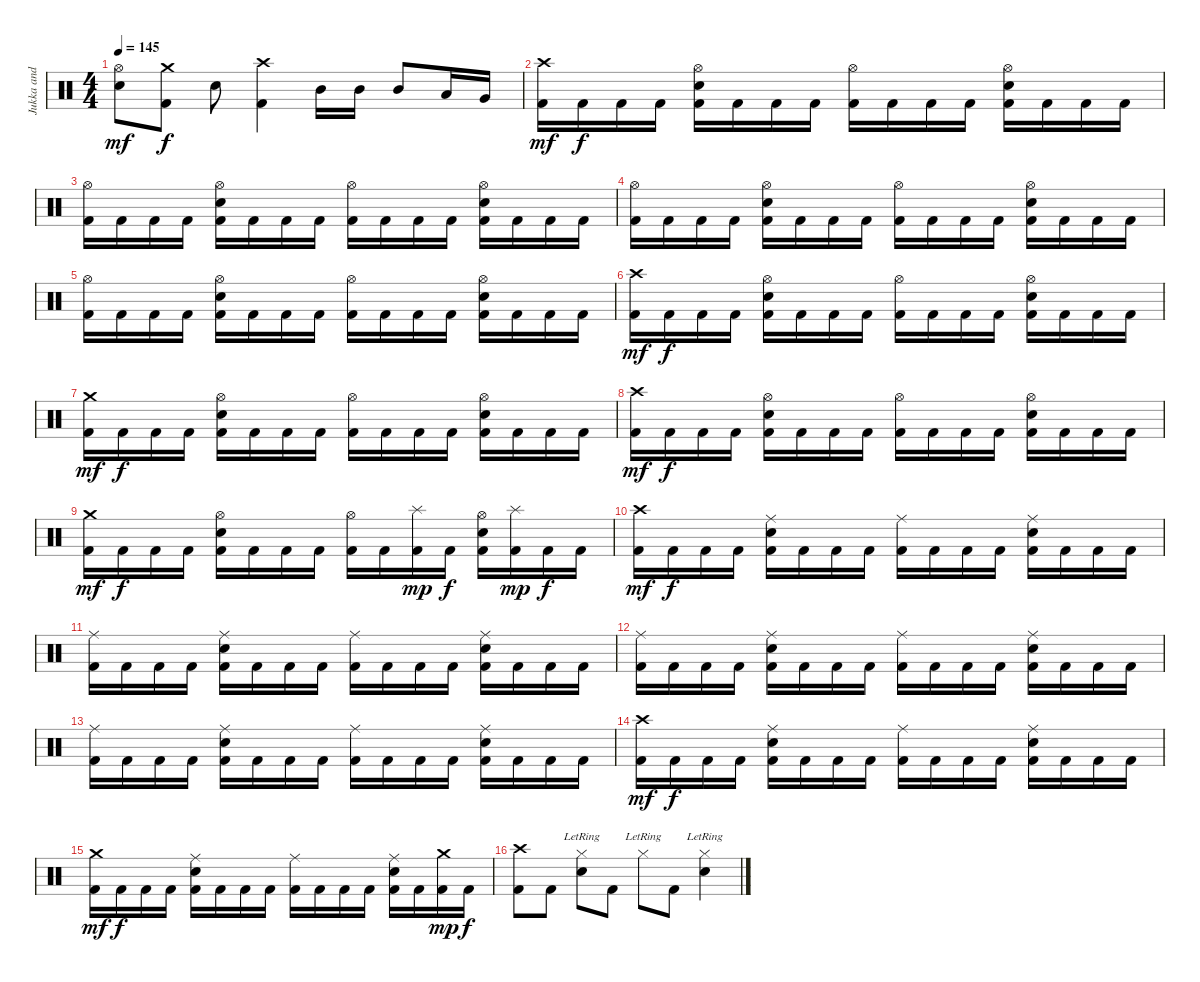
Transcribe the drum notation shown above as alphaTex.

\track ("Jukka and his drums" "Jukka and ") {instrument percussion}
\staff {score}
\articulation defaults
\ts (4 4)
\tempo 145
\clef neutral
\ks c
("Hi-Hat (open)" "Snare (hit) 2").8{dy mf} ("Kick (hit) 2" "Crash medium (hit)").8{dy f} "Snare (hit) 2".8 ("Kick (hit) 2" "Crash high (hit)").4 "Mid Tom (hit)".16 "Mid Tom (hit)".16 "Mid Tom (hit)".8 "Low Tom (hit)".16 "Very Low Tom (hit)".16 |
("Kick (hit) 2" "Crash high (hit)").16{dy mf} "Kick (hit) 2".16{dy f} "Kick (hit) 2".16 "Kick (hit) 2".16 ("Kick (hit) 2" "Hi-Hat (open)" "Snare (hit) 2").16 "Kick (hit) 2".16 "Kick (hit) 2".16 "Kick (hit) 2".16 ("Kick (hit) 2" "Hi-Hat (open)").16 "Kick (hit) 2".16 "Kick (hit) 2".16 "Kick (hit) 2".16 ("Kick (hit) 2" "Hi-Hat (open)" "Snare (hit) 2").16 "Kick (hit) 2".16 "Kick (hit) 2".16 "Kick (hit) 2".16 |
("Kick (hit) 2" "Hi-Hat (open)").16 "Kick (hit) 2".16 "Kick (hit) 2".16 "Kick (hit) 2".16 ("Kick (hit) 2" "Hi-Hat (open)" "Snare (hit) 2").16 "Kick (hit) 2".16 "Kick (hit) 2".16 "Kick (hit) 2".16 ("Kick (hit) 2" "Hi-Hat (open)").16 "Kick (hit) 2".16 "Kick (hit) 2".16 "Kick (hit) 2".16 ("Kick (hit) 2" "Hi-Hat (open)" "Snare (hit) 2").16 "Kick (hit) 2".16 "Kick (hit) 2".16 "Kick (hit) 2".16 |
("Kick (hit) 2" "Hi-Hat (open)").16 "Kick (hit) 2".16 "Kick (hit) 2".16 "Kick (hit) 2".16 ("Kick (hit) 2" "Hi-Hat (open)" "Snare (hit) 2").16 "Kick (hit) 2".16 "Kick (hit) 2".16 "Kick (hit) 2".16 ("Kick (hit) 2" "Hi-Hat (open)").16 "Kick (hit) 2".16 "Kick (hit) 2".16 "Kick (hit) 2".16 ("Kick (hit) 2" "Hi-Hat (open)" "Snare (hit) 2").16 "Kick (hit) 2".16 "Kick (hit) 2".16 "Kick (hit) 2".16 |
("Kick (hit) 2" "Hi-Hat (open)").16 "Kick (hit) 2".16 "Kick (hit) 2".16 "Kick (hit) 2".16 ("Kick (hit) 2" "Hi-Hat (open)" "Snare (hit) 2").16 "Kick (hit) 2".16 "Kick (hit) 2".16 "Kick (hit) 2".16 ("Kick (hit) 2" "Hi-Hat (open)").16 "Kick (hit) 2".16 "Kick (hit) 2".16 "Kick (hit) 2".16 ("Kick (hit) 2" "Hi-Hat (open)" "Snare (hit) 2").16 "Kick (hit) 2".16 "Kick (hit) 2".16 "Kick (hit) 2".16 |
("Kick (hit) 2" "Crash high (hit)").16{dy mf} "Kick (hit) 2".16{dy f} "Kick (hit) 2".16 "Kick (hit) 2".16 ("Kick (hit) 2" "Hi-Hat (open)" "Snare (hit) 2").16 "Kick (hit) 2".16 "Kick (hit) 2".16 "Kick (hit) 2".16 ("Kick (hit) 2" "Hi-Hat (open)").16 "Kick (hit) 2".16 "Kick (hit) 2".16 "Kick (hit) 2".16 ("Kick (hit) 2" "Hi-Hat (open)" "Snare (hit) 2").16 "Kick (hit) 2".16 "Kick (hit) 2".16 "Kick (hit) 2".16 |
("Kick (hit) 2" "Crash medium (hit)").16{dy mf} "Kick (hit) 2".16{dy f} "Kick (hit) 2".16 "Kick (hit) 2".16 ("Kick (hit) 2" "Hi-Hat (open)" "Snare (hit) 2").16 "Kick (hit) 2".16 "Kick (hit) 2".16 "Kick (hit) 2".16 ("Kick (hit) 2" "Hi-Hat (open)").16 "Kick (hit) 2".16 "Kick (hit) 2".16 "Kick (hit) 2".16 ("Kick (hit) 2" "Hi-Hat (open)" "Snare (hit) 2").16 "Kick (hit) 2".16 "Kick (hit) 2".16 "Kick (hit) 2".16 |
("Kick (hit) 2" "Crash high (hit)").16{dy mf} "Kick (hit) 2".16{dy f} "Kick (hit) 2".16 "Kick (hit) 2".16 ("Kick (hit) 2" "Hi-Hat (open)" "Snare (hit) 2").16 "Kick (hit) 2".16 "Kick (hit) 2".16 "Kick (hit) 2".16 ("Kick (hit) 2" "Hi-Hat (open)").16 "Kick (hit) 2".16 "Kick (hit) 2".16 "Kick (hit) 2".16 ("Kick (hit) 2" "Hi-Hat (open)" "Snare (hit) 2").16 "Kick (hit) 2".16 "Kick (hit) 2".16 "Kick (hit) 2".16 |
("Kick (hit) 2" "Crash medium (hit)").16{dy mf} "Kick (hit) 2".16{dy f} "Kick (hit) 2".16 "Kick (hit) 2".16 ("Kick (hit) 2" "Hi-Hat (open)" "Snare (hit) 2").16 "Kick (hit) 2".16 "Kick (hit) 2".16 "Kick (hit) 2".16 ("Kick (hit) 2" "Hi-Hat (open)").16 "Kick (hit) 2".16 ("Kick (hit) 2" "Splash (hit)").16{dy mp} "Kick (hit) 2".16{dy f} ("Kick (hit) 2" "Hi-Hat (open)" "Snare (hit) 2").16 ("Kick (hit) 2" "Splash (hit)").16{dy mp} "Kick (hit) 2".16{dy f} "Kick (hit) 2".16 |
("Kick (hit) 2" "Crash high (hit)").16{dy mf} "Kick (hit) 2".16{dy f} "Kick (hit) 2".16 "Kick (hit) 2".16 ("Kick (hit) 2" "Ride (middle)" "Snare (hit) 2").16 "Kick (hit) 2".16 "Kick (hit) 2".16 "Kick (hit) 2".16 ("Kick (hit) 2" "Ride (middle)").16 "Kick (hit) 2".16 "Kick (hit) 2".16 "Kick (hit) 2".16 ("Kick (hit) 2" "Ride (middle)" "Snare (hit) 2").16 "Kick (hit) 2".16 "Kick (hit) 2".16 "Kick (hit) 2".16 |
("Kick (hit) 2" "Ride (middle)").16 "Kick (hit) 2".16 "Kick (hit) 2".16 "Kick (hit) 2".16 ("Kick (hit) 2" "Ride (middle)" "Snare (hit) 2").16 "Kick (hit) 2".16 "Kick (hit) 2".16 "Kick (hit) 2".16 ("Kick (hit) 2" "Ride (middle)").16 "Kick (hit) 2".16 "Kick (hit) 2".16 "Kick (hit) 2".16 ("Kick (hit) 2" "Ride (middle)" "Snare (hit) 2").16 "Kick (hit) 2".16 "Kick (hit) 2".16 "Kick (hit) 2".16 |
("Kick (hit) 2" "Ride (middle)").16 "Kick (hit) 2".16 "Kick (hit) 2".16 "Kick (hit) 2".16 ("Kick (hit) 2" "Ride (middle)" "Snare (hit) 2").16 "Kick (hit) 2".16 "Kick (hit) 2".16 "Kick (hit) 2".16 ("Kick (hit) 2" "Ride (middle)").16 "Kick (hit) 2".16 "Kick (hit) 2".16 "Kick (hit) 2".16 ("Kick (hit) 2" "Ride (middle)" "Snare (hit) 2").16 "Kick (hit) 2".16 "Kick (hit) 2".16 "Kick (hit) 2".16 |
("Kick (hit) 2" "Ride (middle)").16 "Kick (hit) 2".16 "Kick (hit) 2".16 "Kick (hit) 2".16 ("Kick (hit) 2" "Ride (middle)" "Snare (hit) 2").16 "Kick (hit) 2".16 "Kick (hit) 2".16 "Kick (hit) 2".16 ("Kick (hit) 2" "Ride (middle)").16 "Kick (hit) 2".16 "Kick (hit) 2".16 "Kick (hit) 2".16 ("Kick (hit) 2" "Ride (middle)" "Snare (hit) 2").16 "Kick (hit) 2".16 "Kick (hit) 2".16 "Kick (hit) 2".16 |
("Kick (hit) 2" "Crash high (hit)").16{dy mf} "Kick (hit) 2".16{dy f} "Kick (hit) 2".16 "Kick (hit) 2".16 ("Kick (hit) 2" "Ride (middle)" "Snare (hit) 2").16 "Kick (hit) 2".16 "Kick (hit) 2".16 "Kick (hit) 2".16 ("Kick (hit) 2" "Ride (middle)").16 "Kick (hit) 2".16 "Kick (hit) 2".16 "Kick (hit) 2".16 ("Kick (hit) 2" "Ride (middle)" "Snare (hit) 2").16 "Kick (hit) 2".16 "Kick (hit) 2".16 "Kick (hit) 2".16 |
("Kick (hit) 2" "Crash medium (hit)").16{dy mf} "Kick (hit) 2".16{dy f} "Kick (hit) 2".16 "Kick (hit) 2".16 ("Kick (hit) 2" "Ride (middle)" "Snare (hit) 2").16 "Kick (hit) 2".16 "Kick (hit) 2".16 "Kick (hit) 2".16 ("Kick (hit) 2" "Ride (middle)").16 "Kick (hit) 2".16 "Kick (hit) 2".16 "Kick (hit) 2".16 ("Kick (hit) 2" "Ride (middle)" "Snare (hit) 2").16 "Kick (hit) 2".16 ("Kick (hit) 2" "Crash medium (hit)").16{dy mp} "Kick (hit) 2".16{dy f} |
("Kick (hit) 2" "Crash high (hit)").8 "Kick (hit) 2".8 ("Hi-Hat (closed)"{lr} "Snare (hit) 2").8 "Kick (hit) 2".8 "Hi-Hat (closed)"{lr}.8 "Kick (hit) 2".8 ("Hi-Hat (closed)"{lr} "Snare (hit) 2").4
